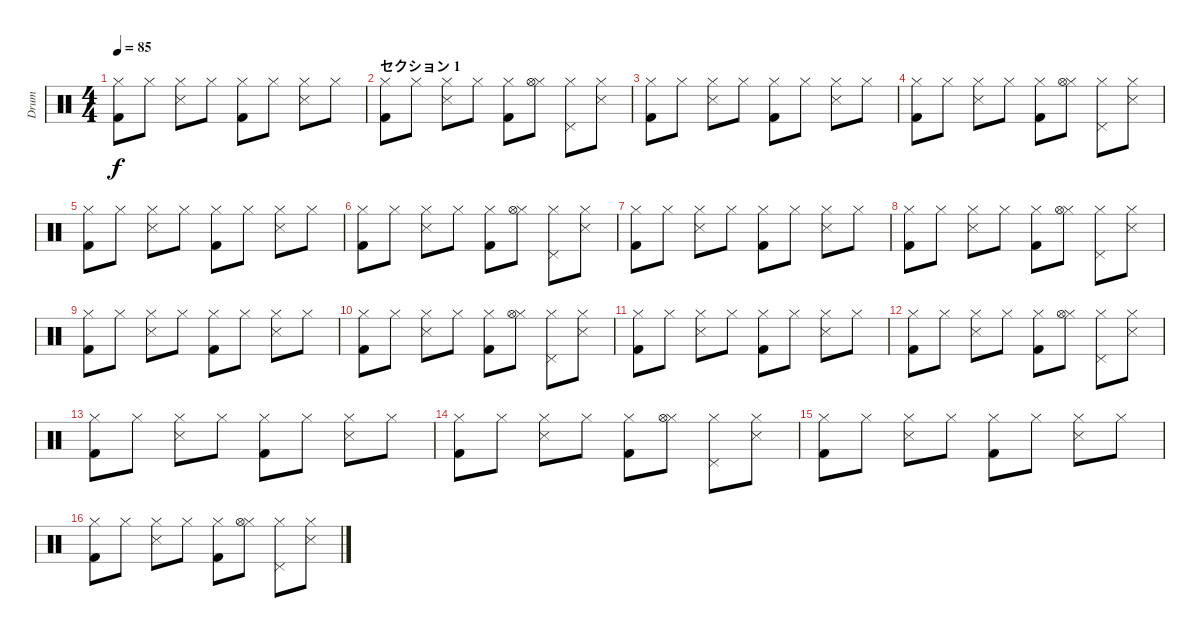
\track ("Drum" "Drum") {instrument percussion}
\staff {score}
\articulation defaults
\ts (4 4)
\tempo 85
\clef neutral
\ks c
("Hi-Hat (closed)" "Kick (hit) 2").8{dy f} "Hi-Hat (closed)".8 ("Snare (side stick) 3" "Hi-Hat (closed)").8 "Hi-Hat (closed)".8 ("Hi-Hat (closed)" "Kick (hit) 2").8 "Hi-Hat (closed)".8 ("Snare (side stick) 3" "Hi-Hat (closed)").8 "Hi-Hat (closed)".8 |
\section ("" "セクション 1")
("Hi-Hat (closed)" "Kick (hit) 2").8 "Hi-Hat (closed)".8 ("Snare (side stick) 3" "Hi-Hat (closed)").8 "Hi-Hat (closed)".8 ("Hi-Hat (closed)" "Kick (hit) 2").8 ("Hi-Hat (closed)" "Hi-Hat (open)").8 ("Hi-Hat (closed)" "Pedal Hi-Hat (hit)").8 ("Snare (side stick) 3" "Hi-Hat (closed)").8 |
("Hi-Hat (closed)" "Kick (hit) 2").8 "Hi-Hat (closed)".8 ("Snare (side stick) 3" "Hi-Hat (closed)").8 "Hi-Hat (closed)".8 ("Hi-Hat (closed)" "Kick (hit) 2").8 "Hi-Hat (closed)".8 ("Snare (side stick) 3" "Hi-Hat (closed)").8 "Hi-Hat (closed)".8 |
("Hi-Hat (closed)" "Kick (hit) 2").8 "Hi-Hat (closed)".8 ("Snare (side stick) 3" "Hi-Hat (closed)").8 "Hi-Hat (closed)".8 ("Hi-Hat (closed)" "Kick (hit) 2").8 ("Hi-Hat (closed)" "Hi-Hat (open)").8 ("Hi-Hat (closed)" "Pedal Hi-Hat (hit)").8 ("Snare (side stick) 3" "Hi-Hat (closed)").8 |
("Hi-Hat (closed)" "Kick (hit) 2").8 "Hi-Hat (closed)".8 ("Snare (side stick) 3" "Hi-Hat (closed)").8 "Hi-Hat (closed)".8 ("Hi-Hat (closed)" "Kick (hit) 2").8 "Hi-Hat (closed)".8 ("Snare (side stick) 3" "Hi-Hat (closed)").8 "Hi-Hat (closed)".8 |
("Hi-Hat (closed)" "Kick (hit) 2").8 "Hi-Hat (closed)".8 ("Snare (side stick) 3" "Hi-Hat (closed)").8 "Hi-Hat (closed)".8 ("Hi-Hat (closed)" "Kick (hit) 2").8 ("Hi-Hat (closed)" "Hi-Hat (open)").8 ("Hi-Hat (closed)" "Pedal Hi-Hat (hit)").8 ("Snare (side stick) 3" "Hi-Hat (closed)").8 |
("Hi-Hat (closed)" "Kick (hit) 2").8 "Hi-Hat (closed)".8 ("Snare (side stick) 3" "Hi-Hat (closed)").8 "Hi-Hat (closed)".8 ("Hi-Hat (closed)" "Kick (hit) 2").8 "Hi-Hat (closed)".8 ("Snare (side stick) 3" "Hi-Hat (closed)").8 "Hi-Hat (closed)".8 |
("Hi-Hat (closed)" "Kick (hit) 2").8 "Hi-Hat (closed)".8 ("Snare (side stick) 3" "Hi-Hat (closed)").8 "Hi-Hat (closed)".8 ("Hi-Hat (closed)" "Kick (hit) 2").8 ("Hi-Hat (closed)" "Hi-Hat (open)").8 ("Hi-Hat (closed)" "Pedal Hi-Hat (hit)").8 ("Snare (side stick) 3" "Hi-Hat (closed)").8 |
("Hi-Hat (closed)" "Kick (hit) 2").8 "Hi-Hat (closed)".8 ("Snare (side stick) 3" "Hi-Hat (closed)").8 "Hi-Hat (closed)".8 ("Hi-Hat (closed)" "Kick (hit) 2").8 "Hi-Hat (closed)".8 ("Snare (side stick) 3" "Hi-Hat (closed)").8 "Hi-Hat (closed)".8 |
("Hi-Hat (closed)" "Kick (hit) 2").8 "Hi-Hat (closed)".8 ("Snare (side stick) 3" "Hi-Hat (closed)").8 "Hi-Hat (closed)".8 ("Hi-Hat (closed)" "Kick (hit) 2").8 ("Hi-Hat (closed)" "Hi-Hat (open)").8 ("Hi-Hat (closed)" "Pedal Hi-Hat (hit)").8 ("Snare (side stick) 3" "Hi-Hat (closed)").8 |
("Hi-Hat (closed)" "Kick (hit) 2").8 "Hi-Hat (closed)".8 ("Snare (side stick) 3" "Hi-Hat (closed)").8 "Hi-Hat (closed)".8 ("Hi-Hat (closed)" "Kick (hit) 2").8 "Hi-Hat (closed)".8 ("Snare (side stick) 3" "Hi-Hat (closed)").8 "Hi-Hat (closed)".8 |
("Hi-Hat (closed)" "Kick (hit) 2").8 "Hi-Hat (closed)".8 ("Snare (side stick) 3" "Hi-Hat (closed)").8 "Hi-Hat (closed)".8 ("Hi-Hat (closed)" "Kick (hit) 2").8 ("Hi-Hat (closed)" "Hi-Hat (open)").8 ("Hi-Hat (closed)" "Pedal Hi-Hat (hit)").8 ("Snare (side stick) 3" "Hi-Hat (closed)").8 |
("Hi-Hat (closed)" "Kick (hit) 2").8 "Hi-Hat (closed)".8 ("Snare (side stick) 3" "Hi-Hat (closed)").8 "Hi-Hat (closed)".8 ("Hi-Hat (closed)" "Kick (hit) 2").8 "Hi-Hat (closed)".8 ("Snare (side stick) 3" "Hi-Hat (closed)").8 "Hi-Hat (closed)".8 |
("Hi-Hat (closed)" "Kick (hit) 2").8 "Hi-Hat (closed)".8 ("Snare (side stick) 3" "Hi-Hat (closed)").8 "Hi-Hat (closed)".8 ("Hi-Hat (closed)" "Kick (hit) 2").8 ("Hi-Hat (closed)" "Hi-Hat (open)").8 ("Hi-Hat (closed)" "Pedal Hi-Hat (hit)").8 ("Snare (side stick) 3" "Hi-Hat (closed)").8 |
("Hi-Hat (closed)" "Kick (hit) 2").8 "Hi-Hat (closed)".8 ("Snare (side stick) 3" "Hi-Hat (closed)").8 "Hi-Hat (closed)".8 ("Hi-Hat (closed)" "Kick (hit) 2").8 "Hi-Hat (closed)".8 ("Snare (side stick) 3" "Hi-Hat (closed)").8 "Hi-Hat (closed)".8 |
("Hi-Hat (closed)" "Kick (hit) 2").8 "Hi-Hat (closed)".8 ("Snare (side stick) 3" "Hi-Hat (closed)").8 "Hi-Hat (closed)".8 ("Hi-Hat (closed)" "Kick (hit) 2").8 ("Hi-Hat (closed)" "Hi-Hat (open)").8 ("Hi-Hat (closed)" "Pedal Hi-Hat (hit)").8 ("Snare (side stick) 3" "Hi-Hat (closed)").8
